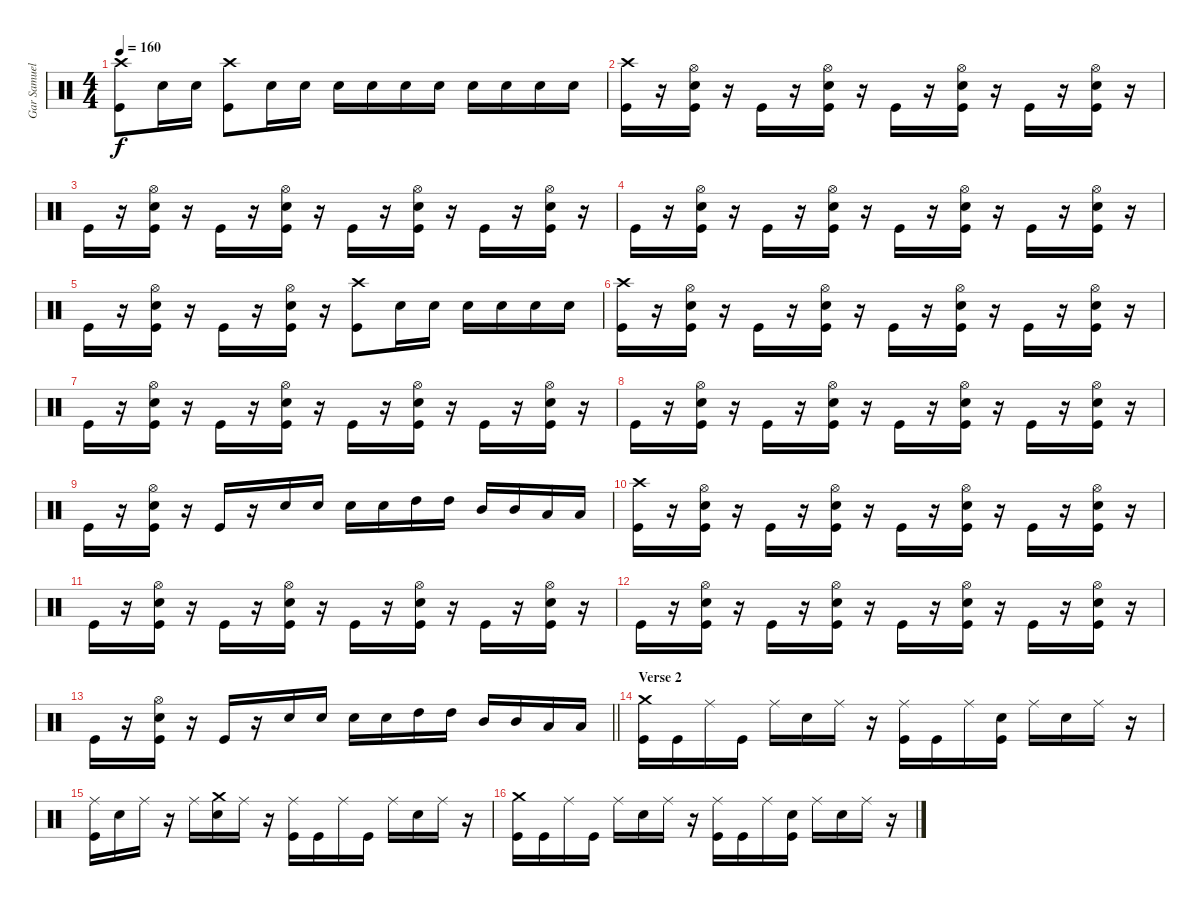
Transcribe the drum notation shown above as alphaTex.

\track ("Gar Samuelson" "Gar Samuel") {instrument percussion}
\staff {score}
\articulation defaults
\ts (4 4)
\tempo 160
\clef neutral
\ks c
("Crash high (hit)" "Kick (hit)").8{dy f} "Snare (hit) 2".16 "Snare (hit) 2".16 ("Crash high (hit)" "Kick (hit)").8 "Snare (hit) 2".16 "Snare (hit) 2".16 "Snare (hit) 2".16 "Snare (hit) 2".16 "Snare (hit) 2".16 "Snare (hit) 2".16 "Snare (hit) 2".16 "Snare (hit) 2".16 "Snare (hit) 2".16 "Snare (hit) 2".16 |
("Crash high (hit)" "Kick (hit)").16 r.16 ("Hi-Hat (open)" "Snare (hit) 2" "Kick (hit)").16 r.16 "Kick (hit)".16 r.16 ("Hi-Hat (open)" "Snare (hit) 2" "Kick (hit)").16 r.16 "Kick (hit)".16 r.16 ("Hi-Hat (open)" "Snare (hit) 2" "Kick (hit)").16 r.16 "Kick (hit)".16 r.16 ("Hi-Hat (open)" "Snare (hit) 2" "Kick (hit)").16 r.16 |
"Kick (hit)".16 r.16 ("Hi-Hat (open)" "Snare (hit) 2" "Kick (hit)").16 r.16 "Kick (hit)".16 r.16 ("Hi-Hat (open)" "Snare (hit) 2" "Kick (hit)").16 r.16 "Kick (hit)".16 r.16 ("Hi-Hat (open)" "Snare (hit) 2" "Kick (hit)").16 r.16 "Kick (hit)".16 r.16 ("Hi-Hat (open)" "Snare (hit) 2" "Kick (hit)").16 r.16 |
"Kick (hit)".16 r.16 ("Hi-Hat (open)" "Snare (hit) 2" "Kick (hit)").16 r.16 "Kick (hit)".16 r.16 ("Hi-Hat (open)" "Snare (hit) 2" "Kick (hit)").16 r.16 "Kick (hit)".16 r.16 ("Hi-Hat (open)" "Snare (hit) 2" "Kick (hit)").16 r.16 "Kick (hit)".16 r.16 ("Hi-Hat (open)" "Snare (hit) 2" "Kick (hit)").16 r.16 |
"Kick (hit)".16 r.16 ("Hi-Hat (open)" "Snare (hit) 2" "Kick (hit)").16 r.16 "Kick (hit)".16 r.16 ("Hi-Hat (open)" "Snare (hit) 2" "Kick (hit)").16 r.16 ("Crash high (hit)" "Kick (hit)").8 "Snare (hit) 2".16 "Snare (hit) 2".16 "Snare (hit) 2".16 "Snare (hit) 2".16 "Snare (hit) 2".16 "Snare (hit) 2".16 |
("Crash high (hit)" "Kick (hit)").16 r.16 ("Hi-Hat (open)" "Snare (hit) 2" "Kick (hit)").16 r.16 "Kick (hit)".16 r.16 ("Hi-Hat (open)" "Snare (hit) 2" "Kick (hit)").16 r.16 "Kick (hit)".16 r.16 ("Hi-Hat (open)" "Snare (hit) 2" "Kick (hit)").16 r.16 "Kick (hit)".16 r.16 ("Hi-Hat (open)" "Snare (hit) 2" "Kick (hit)").16 r.16 |
"Kick (hit)".16 r.16 ("Hi-Hat (open)" "Snare (hit) 2" "Kick (hit)").16 r.16 "Kick (hit)".16 r.16 ("Hi-Hat (open)" "Snare (hit) 2" "Kick (hit)").16 r.16 "Kick (hit)".16 r.16 ("Hi-Hat (open)" "Snare (hit) 2" "Kick (hit)").16 r.16 "Kick (hit)".16 r.16 ("Hi-Hat (open)" "Snare (hit) 2" "Kick (hit)").16 r.16 |
"Kick (hit)".16 r.16 ("Hi-Hat (open)" "Snare (hit) 2" "Kick (hit)").16 r.16 "Kick (hit)".16 r.16 ("Hi-Hat (open)" "Snare (hit) 2" "Kick (hit)").16 r.16 "Kick (hit)".16 r.16 ("Hi-Hat (open)" "Snare (hit) 2" "Kick (hit)").16 r.16 "Kick (hit)".16 r.16 ("Hi-Hat (open)" "Snare (hit) 2" "Kick (hit)").16 r.16 |
"Kick (hit)".16 r.16 ("Hi-Hat (open)" "Snare (hit) 2" "Kick (hit)").16 r.16 "Kick (hit)".16 r.16 "Snare (hit) 2".16 "Snare (hit) 2".16 "Snare (hit) 2".16 "Snare (hit) 2".16 "High Tom (hit)".16 "High Tom (hit)".16 "Mid Tom (hit)".16 "Mid Tom (hit)".16 "Low Tom (hit)".16 "Low Tom (hit)".16 |
("Crash high (hit)" "Kick (hit)").16 r.16 ("Hi-Hat (open)" "Snare (hit) 2" "Kick (hit)").16 r.16 "Kick (hit)".16 r.16 ("Hi-Hat (open)" "Snare (hit) 2" "Kick (hit)").16 r.16 "Kick (hit)".16 r.16 ("Hi-Hat (open)" "Snare (hit) 2" "Kick (hit)").16 r.16 "Kick (hit)".16 r.16 ("Hi-Hat (open)" "Snare (hit) 2" "Kick (hit)").16 r.16 |
"Kick (hit)".16 r.16 ("Hi-Hat (open)" "Snare (hit) 2" "Kick (hit)").16 r.16 "Kick (hit)".16 r.16 ("Hi-Hat (open)" "Snare (hit) 2" "Kick (hit)").16 r.16 "Kick (hit)".16 r.16 ("Hi-Hat (open)" "Snare (hit) 2" "Kick (hit)").16 r.16 "Kick (hit)".16 r.16 ("Hi-Hat (open)" "Snare (hit) 2" "Kick (hit)").16 r.16 |
"Kick (hit)".16 r.16 ("Hi-Hat (open)" "Snare (hit) 2" "Kick (hit)").16 r.16 "Kick (hit)".16 r.16 ("Hi-Hat (open)" "Snare (hit) 2" "Kick (hit)").16 r.16 "Kick (hit)".16 r.16 ("Hi-Hat (open)" "Snare (hit) 2" "Kick (hit)").16 r.16 "Kick (hit)".16 r.16 ("Hi-Hat (open)" "Snare (hit) 2" "Kick (hit)").16 r.16 |
\barLineRight lightlight "Kick (hit)".16
r.16 ("Hi-Hat (open)" "Snare (hit) 2" "Kick (hit)").16 r.16 "Kick (hit)".16 r.16 "Snare (hit) 2".16 "Snare (hit) 2".16 "Snare (hit) 2".16 "Snare (hit) 2".16 "High Tom (hit)".16 "High Tom (hit)".16 "Mid Tom (hit)".16 "Mid Tom (hit)".16 "Low Tom (hit)".16 "Low Tom (hit)".16 |
\section ("" "Verse 2")
("Crash medium (hit)" "Kick (hit)").16 "Kick (hit)".16 "Ride (middle)".16 "Kick (hit)".16 "Ride (middle)".16 "Snare (hit) 2".16 "Ride (middle)".16 r.16 ("Ride (middle)" "Kick (hit)").16 "Kick (hit)".16 "Ride (middle)".16 ("Snare (hit) 2" "Kick (hit)").16 "Ride (middle)".16 "Snare (hit) 2".16 "Ride (middle)".16 r.16 |
("Ride (middle)" "Kick (hit)").16 "Snare (hit) 2".16 "Ride (middle)".16 r.16 "Ride (middle)".16 ("Crash medium (hit)" "Snare (hit) 2").16 "Ride (middle)".16 r.16 ("Ride (middle)" "Kick (hit)").16 "Kick (hit)".16 "Ride (middle)".16 "Kick (hit)".16 "Ride (middle)".16 "Snare (hit) 2".16 "Ride (middle)".16 r.16 |
("Crash medium (hit)" "Kick (hit)").16 "Kick (hit)".16 "Ride (middle)".16 "Kick (hit)".16 "Ride (middle)".16 "Snare (hit) 2".16 "Ride (middle)".16 r.16 ("Ride (middle)" "Kick (hit)").16 "Kick (hit)".16 "Ride (middle)".16 ("Snare (hit) 2" "Kick (hit)").16 "Ride (middle)".16 "Snare (hit) 2".16 "Ride (middle)".16 r.16
